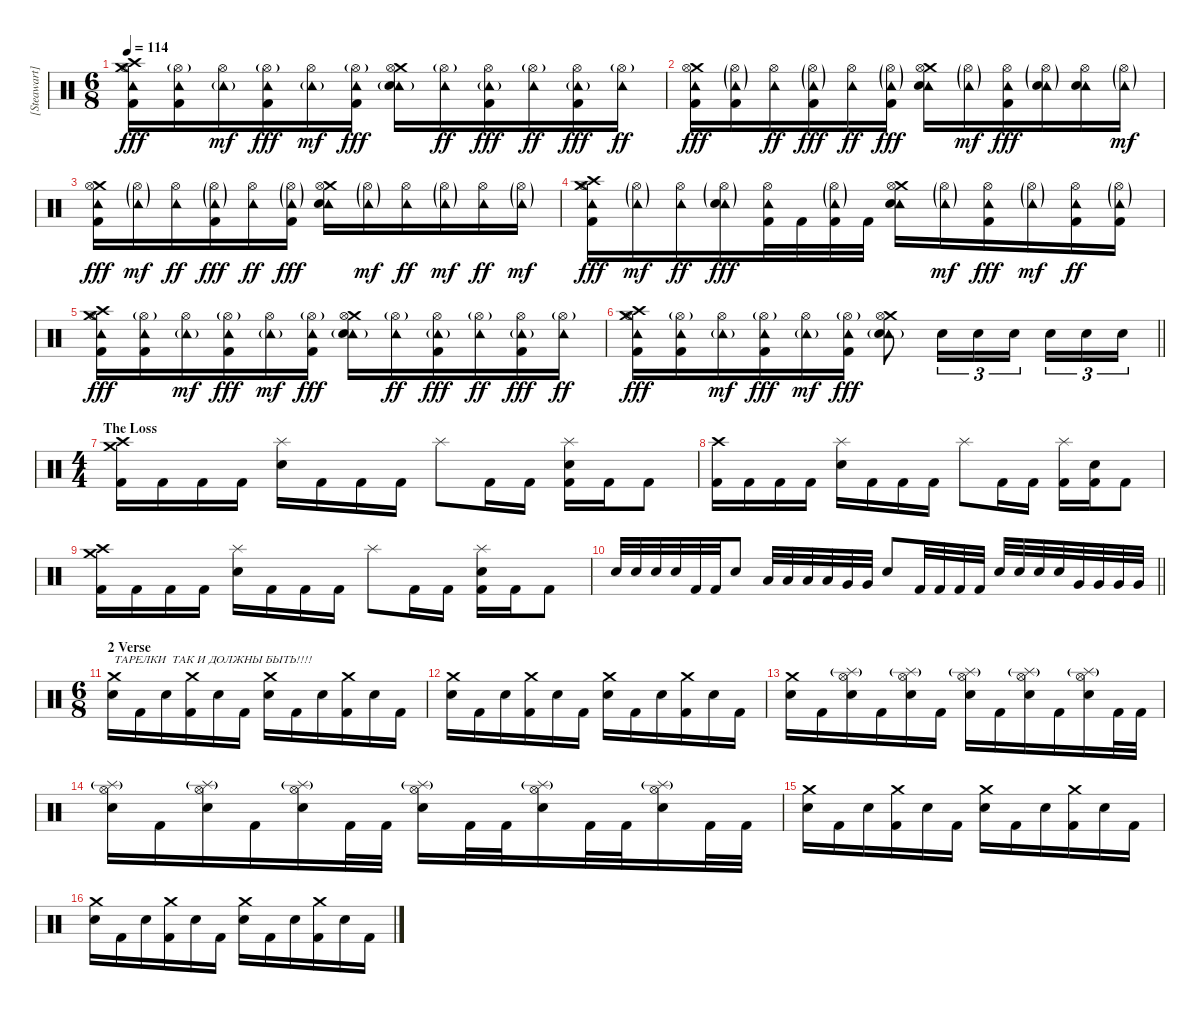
\track ("[Steawart] Drums" "[Steawart]") {solo instrument percussion}
\staff {score}
\articulation defaults
\ts (6 8)
\tempo 114
\clef neutral
\ks c
("Crash medium (hit)" "Hi-Hat (open)" "Crash high (hit)" "Tambourine (hit)" "Kick (hit) 2").16{dy fff} ("Hi-Hat (open)"{g} "Tambourine (hit)" "Kick (hit) 2").16 ("Hi-Hat (open)" "Tambourine (hit)"{g}).16{dy mf} ("Hi-Hat (open)"{g} "Tambourine (hit)" "Kick (hit) 2").16{dy fff} ("Hi-Hat (open)" "Tambourine (hit)"{g}).16{dy mf} ("Hi-Hat (open)"{g} "Tambourine (hit)" "Kick (hit) 2").16{dy fff} ("Crash medium (hit)" "Hi-Hat (open)" "Tambourine (hit)"{g} "Electric Snare (hit)").16 ("Hi-Hat (open)"{g} "Tambourine (hit)").16{dy ff} ("Hi-Hat (open)" "Tambourine (hit)"{g} "Kick (hit) 2").16{dy fff} ("Hi-Hat (open)"{g} "Tambourine (hit)").16{dy ff} ("Hi-Hat (open)" "Tambourine (hit)"{g} "Kick (hit) 2").16{dy fff} ("Hi-Hat (open)"{g} "Tambourine (hit)").16{dy ff} |
("Crash medium (hit)" "Hi-Hat (open)" "Tambourine (hit)" "Kick (hit) 2").16{dy fff} ("Hi-Hat (open)"{g} "Tambourine (hit)"{g} "Kick (hit) 2").16 ("Hi-Hat (open)" "Tambourine (hit)").16{dy ff} ("Hi-Hat (open)"{g} "Tambourine (hit)"{g} "Kick (hit) 2").16{dy fff} ("Hi-Hat (open)" "Tambourine (hit)").16{dy ff} ("Hi-Hat (open)"{g} "Tambourine (hit)"{g} "Kick (hit) 2").16{dy fff} ("Crash medium (hit)" "Hi-Hat (open)" "Tambourine (hit)" "Electric Snare (hit)").16 ("Hi-Hat (open)"{g} "Tambourine (hit)"{g}).16{dy mf} ("Hi-Hat (open)" "Tambourine (hit)" "Kick (hit) 2").16{dy fff} ("Hi-Hat (open)"{g} "Tambourine (hit)"{g} "Electric Snare (hit)").16 ("Hi-Hat (open)" "Tambourine (hit)" "Electric Snare (hit)").16 ("Hi-Hat (open)"{g} "Tambourine (hit)"{g}).16{dy mf} |
("Crash medium (hit)" "Hi-Hat (open)" "Tambourine (hit)" "Kick (hit) 2").16{dy fff} ("Hi-Hat (open)"{g} "Tambourine (hit)"{g}).16{dy mf} ("Hi-Hat (open)" "Tambourine (hit)").16{dy ff} ("Hi-Hat (open)"{g} "Tambourine (hit)"{g} "Kick (hit) 2").16{dy fff} ("Hi-Hat (open)" "Tambourine (hit)").16{dy ff} ("Hi-Hat (open)"{g} "Tambourine (hit)"{g} "Kick (hit) 2").16{dy fff} ("Crash medium (hit)" "Hi-Hat (open)" "Tambourine (hit)" "Electric Snare (hit)").16 ("Hi-Hat (open)"{g} "Tambourine (hit)"{g}).16{dy mf} ("Hi-Hat (open)" "Tambourine (hit)").16{dy ff} ("Hi-Hat (open)"{g} "Tambourine (hit)"{g}).16{dy mf} ("Hi-Hat (open)" "Tambourine (hit)").16{dy ff} ("Hi-Hat (open)"{g} "Tambourine (hit)"{g}).16{dy mf} |
("Crash medium (hit)" "Hi-Hat (open)" "Crash high (hit)" "Tambourine (hit)" "Kick (hit) 2").16{dy fff} ("Hi-Hat (open)"{g} "Tambourine (hit)"{g}).16{dy mf} ("Hi-Hat (open)" "Tambourine (hit)").16{dy ff} ("Hi-Hat (open)"{g} "Tambourine (hit)"{g} "Electric Snare (hit)").16{dy fff} ("Hi-Hat (open)" "Tambourine (hit)" "Kick (hit) 2").32 "Kick (hit) 2".32 ("Hi-Hat (open)"{g} "Tambourine (hit)"{g} "Kick (hit) 2").32 "Kick (hit) 2".32 ("Crash medium (hit)" "Hi-Hat (open)" "Tambourine (hit)" "Electric Snare (hit)").16 ("Hi-Hat (open)"{g} "Tambourine (hit)"{g}).16{dy mf} ("Hi-Hat (open)" "Tambourine (hit)" "Kick (hit) 2").16{dy fff} ("Hi-Hat (open)"{g} "Tambourine (hit)"{g}).16{dy mf} ("Hi-Hat (open)" "Tambourine (hit)" "Kick (hit) 2").16{dy ff} ("Hi-Hat (open)"{g} "Tambourine (hit)"{g} "Kick (hit) 2").16 |
("Crash medium (hit)" "Hi-Hat (open)" "Crash high (hit)" "Tambourine (hit)" "Kick (hit) 2").16{dy fff} ("Hi-Hat (open)"{g} "Tambourine (hit)" "Kick (hit) 2").16 ("Hi-Hat (open)" "Tambourine (hit)"{g}).16{dy mf} ("Hi-Hat (open)"{g} "Tambourine (hit)" "Kick (hit) 2").16{dy fff} ("Hi-Hat (open)" "Tambourine (hit)"{g}).16{dy mf} ("Hi-Hat (open)"{g} "Tambourine (hit)" "Kick (hit) 2").16{dy fff} ("Crash medium (hit)" "Hi-Hat (open)" "Tambourine (hit)"{g} "Electric Snare (hit)").16 ("Hi-Hat (open)"{g} "Tambourine (hit)").16{dy ff} ("Hi-Hat (open)" "Tambourine (hit)"{g} "Kick (hit) 2").16{dy fff} ("Hi-Hat (open)"{g} "Tambourine (hit)").16{dy ff} ("Hi-Hat (open)" "Tambourine (hit)"{g} "Kick (hit) 2").16{dy fff} ("Hi-Hat (open)"{g} "Tambourine (hit)").16{dy ff} |
\barLineRight lightlight
("Crash medium (hit)" "Hi-Hat (open)" "Crash high (hit)" "Tambourine (hit)" "Kick (hit) 2").16{dy fff} ("Hi-Hat (open)"{g} "Tambourine (hit)" "Kick (hit) 2").16 ("Hi-Hat (open)" "Tambourine (hit)"{g}).16{dy mf} ("Hi-Hat (open)"{g} "Tambourine (hit)" "Kick (hit) 2").16{dy fff} ("Hi-Hat (open)" "Tambourine (hit)"{g}).16{dy mf} ("Hi-Hat (open)"{g} "Tambourine (hit)" "Kick (hit) 2").16{dy fff} ("Crash medium (hit)" "Hi-Hat (open)" "Tambourine (hit)"{g} "Electric Snare (hit)").8 "Electric Snare (hit)".16{tu (3 2)} "Electric Snare (hit)".16{tu (3 2)} "Electric Snare (hit)".16{tu (3 2) beam splitsecondary} "Electric Snare (hit)".16{tu (3 2)} "Electric Snare (hit)".16{tu (3 2)} "Electric Snare (hit)".16{tu (3 2)} |
\ts (4 4)
\section ("" "The Loss")
("Crash medium (hit)" "Crash high (hit)" "Kick (hit) 2").16 "Kick (hit) 2".16 "Kick (hit) 2".16 "Kick (hit) 2".16 ("Splash (hit)" "Electric Snare (hit)").16 "Kick (hit) 2".16 "Kick (hit) 2".16 "Kick (hit) 2".16 "Splash (hit)".8 "Kick (hit) 2".16 "Kick (hit) 2".16 ("Splash (hit)" "Electric Snare (hit)" "Kick (hit) 2").16 "Kick (hit) 2".16 "Kick (hit) 2".8 |
("Crash high (hit)" "Kick (hit) 2").16 "Kick (hit) 2".16 "Kick (hit) 2".16 "Kick (hit) 2".16 ("Splash (hit)" "Electric Snare (hit)").16 "Kick (hit) 2".16 "Kick (hit) 2".16 "Kick (hit) 2".16 "Splash (hit)".8 "Kick (hit) 2".16 "Kick (hit) 2".16 ("Splash (hit)" "Kick (hit) 2").16 ("Electric Snare (hit)" "Kick (hit) 2").16 "Kick (hit) 2".8 |
("Crash medium (hit)" "Crash high (hit)" "Kick (hit) 2").16 "Kick (hit) 2".16 "Kick (hit) 2".16 "Kick (hit) 2".16 ("Splash (hit)" "Electric Snare (hit)").16 "Kick (hit) 2".16 "Kick (hit) 2".16 "Kick (hit) 2".16 "Splash (hit)".8 "Kick (hit) 2".16 "Kick (hit) 2".16 ("Splash (hit)" "Electric Snare (hit)" "Kick (hit) 2").16 "Kick (hit) 2".16 "Kick (hit) 2".8 |
\barLineRight lightlight "Electric Snare (hit)".32 "Electric Snare (hit)".32 "Electric Snare (hit)".32 "Electric Snare (hit)".32 "Kick (hit) 2".32 "Kick (hit) 2".32 "Electric Snare (hit)".8 "Low Tom (hit)".32 "Low Tom (hit)".32 "Low Tom (hit)".32 "Low Tom (hit)".32 "Very Low Tom (hit)".32 "Very Low Tom (hit)".32 "Electric Snare (hit)".8 "Kick (hit) 2".32 "Kick (hit) 2".32 "Kick (hit) 2".32 "Kick (hit) 2".32 "Electric Snare (hit)".32 "Electric Snare (hit)".32 "Electric Snare (hit)".32 "Electric Snare (hit)".32 "Very Low Tom (hit)".32 "Very Low Tom (hit)".32 "Very Low Tom (hit)".32 "Very Low Tom (hit)".32
|
\ts (6 8)
\section ("" "2 Verse ")
("Crash medium (hit)" "Electric Snare (hit)").16{txt "ТАРЕЛКИ  ТАК И ДОЛЖНЫ БЫТЬ!!!!"} "Kick (hit) 2".16 "Electric Snare (hit)".16 ("Crash medium (hit)" "Kick (hit) 2").16 "Electric Snare (hit)".16 "Kick (hit) 2".16 ("Crash medium (hit)" "Electric Snare (hit)").16 "Kick (hit) 2".16 "Electric Snare (hit)".16 ("Crash medium (hit)" "Kick (hit) 2").16 "Electric Snare (hit)".16 "Kick (hit) 2".16 |
("Crash medium (hit)" "Electric Snare (hit)").16 "Kick (hit) 2".16 "Electric Snare (hit)".16 ("Crash medium (hit)" "Kick (hit) 2").16 "Electric Snare (hit)".16 "Kick (hit) 2".16 ("Crash medium (hit)" "Electric Snare (hit)").16 "Kick (hit) 2".16 "Electric Snare (hit)".16 ("Crash medium (hit)" "Kick (hit) 2").16 "Electric Snare (hit)".16 "Kick (hit) 2".16 |
("Crash medium (hit)" "Electric Snare (hit)").16 "Kick (hit) 2".16 ("Hi-Hat (open)" "Splash (hit)"{g} "Electric Snare (hit)").16 "Kick (hit) 2".16 ("Hi-Hat (open)" "Splash (hit)"{g} "Electric Snare (hit)").16 "Kick (hit) 2".16 ("Hi-Hat (open)" "Splash (hit)"{g} "Electric Snare (hit)").16 "Kick (hit) 2".16 ("Hi-Hat (open)" "Splash (hit)"{g} "Electric Snare (hit)").16 "Kick (hit) 2".16 ("Hi-Hat (open)" "Splash (hit)"{g} "Electric Snare (hit)").16 "Kick (hit) 2".32 "Kick (hit) 2".32 |
("Hi-Hat (open)" "Splash (hit)"{g} "Electric Snare (hit)").16 "Kick (hit) 2".16 ("Hi-Hat (open)" "Splash (hit)"{g} "Electric Snare (hit)").16 "Kick (hit) 2".16 ("Hi-Hat (open)" "Splash (hit)"{g} "Electric Snare (hit)").16 "Kick (hit) 2".32 "Kick (hit) 2".32 ("Hi-Hat (open)" "Splash (hit)"{g} "Electric Snare (hit)").16 "Kick (hit) 2".32 "Kick (hit) 2".32 ("Hi-Hat (open)" "Splash (hit)"{g} "Electric Snare (hit)").16 "Kick (hit) 2".32 "Kick (hit) 2".32 ("Hi-Hat (open)" "Splash (hit)"{g} "Electric Snare (hit)").16 "Kick (hit) 2".32 "Kick (hit) 2".32 |
("Crash medium (hit)" "Electric Snare (hit)").16 "Kick (hit) 2".16 "Electric Snare (hit)".16 ("Crash medium (hit)" "Kick (hit) 2").16 "Electric Snare (hit)".16 "Kick (hit) 2".16 ("Crash medium (hit)" "Electric Snare (hit)").16 "Kick (hit) 2".16 "Electric Snare (hit)".16 ("Crash medium (hit)" "Kick (hit) 2").16 "Electric Snare (hit)".16 "Kick (hit) 2".16 |
("Crash medium (hit)" "Electric Snare (hit)").16 "Kick (hit) 2".16 "Electric Snare (hit)".16 ("Crash medium (hit)" "Kick (hit) 2").16 "Electric Snare (hit)".16 "Kick (hit) 2".16 ("Crash medium (hit)" "Electric Snare (hit)").16 "Kick (hit) 2".16 "Electric Snare (hit)".16 ("Crash medium (hit)" "Kick (hit) 2").16 "Electric Snare (hit)".16 "Kick (hit) 2".16
